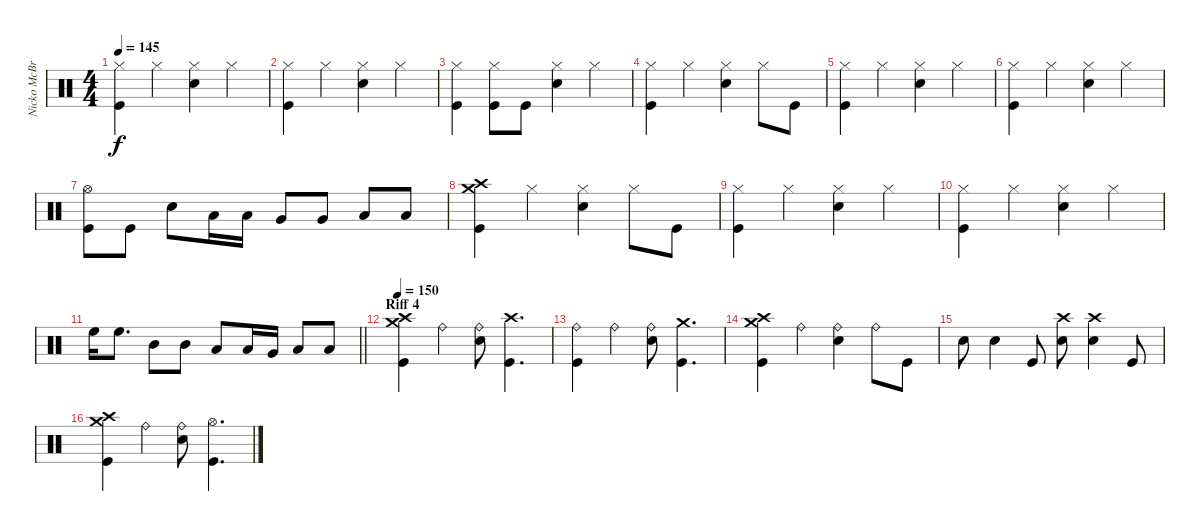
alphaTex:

\track ("Nicko McBrain" "Nicko McBr") {instrument percussion}
\staff {score}
\articulation defaults
\ts (4 4)
\tempo 145
\clef neutral
\ks c
("Hi-Hat (closed)" "Kick (hit)").4{dy f} "Hi-Hat (closed)".4 ("Hi-Hat (closed)" "Snare (hit) 2").4 "Hi-Hat (closed)".4 |
("Hi-Hat (closed)" "Kick (hit)").4 "Hi-Hat (closed)".4 ("Hi-Hat (closed)" "Snare (hit) 2").4 "Hi-Hat (closed)".4 |
("Hi-Hat (closed)" "Kick (hit)").4 ("Hi-Hat (closed)" "Kick (hit)").8 "Kick (hit)".8 ("Hi-Hat (closed)" "Snare (hit) 2").4 "Hi-Hat (closed)".4 |
("Hi-Hat (closed)" "Kick (hit)").4 "Hi-Hat (closed)".4 ("Hi-Hat (closed)" "Snare (hit) 2").4 "Hi-Hat (closed)".8 "Kick (hit)".8 |
("Hi-Hat (closed)" "Kick (hit)").4 "Hi-Hat (closed)".4 ("Hi-Hat (closed)" "Snare (hit) 2").4 "Hi-Hat (closed)".4 |
("Hi-Hat (closed)" "Kick (hit)").4 "Hi-Hat (closed)".4 ("Hi-Hat (closed)" "Snare (hit) 2").4 "Hi-Hat (closed)".4 |
("Hi-Hat (open)" "Kick (hit)").8 "Kick (hit)".8 "Snare (hit) 2".8 "Low Tom (hit)".16 "Low Tom (hit)".16 "Very Low Tom (hit)".8 "Very Low Tom (hit)".8 "Low Floor Tom (hit)".8 "Low Floor Tom (hit)".8 |
("Crash medium (hit)" "Crash high (hit)" "Kick (hit)").4 "Hi-Hat (closed)".4 ("Hi-Hat (closed)" "Snare (hit) 2").4 "Hi-Hat (closed)".8 "Kick (hit)".8 |
("Hi-Hat (closed)" "Kick (hit)").4 "Hi-Hat (closed)".4 ("Hi-Hat (closed)" "Snare (hit) 2").4 "Hi-Hat (closed)".4 |
("Hi-Hat (closed)" "Kick (hit)").4 "Hi-Hat (closed)".4 ("Hi-Hat (closed)" "Snare (hit) 2").4 "Hi-Hat (closed)".4 |
\barLineRight lightlight "High Floor Tom (hit)".16 "High Floor Tom (hit)".8{d} "Mid Tom (hit)".8 "Mid Tom (hit)".8 "Low Tom (hit)".8 "Low Tom (hit)".16 "Very Low Tom (hit)".16 "Low Tom (hit)".8 "Low Floor Tom (hit)".8
|
\section ("" "Riff 4")
\tempo 150
("Crash medium (hit)" "Crash high (hit)" "Kick (hit)").4 "Ride (bell)".4 ("Ride (bell)" "Snare (hit) 2").8 ("Crash high (hit)" "Kick (hit)").4{d} |
("Ride (bell)" "Kick (hit)").4 "Ride (bell)".4 ("Ride (bell)" "Snare (hit) 2").8 ("Crash medium (hit)" "Kick (hit)").4{d} |
("Crash medium (hit)" "Crash high (hit)" "Kick (hit)").4 "Ride (bell)".4 ("Ride (bell)" "Snare (hit) 2").4 "Ride (bell)".8 "Kick (hit)".8 |
"Snare (hit) 2".8 "Snare (hit) 2".4 "Kick (hit)".8 ("Crash high (hit)" "Snare (hit) 2").8 ("Crash high (hit)" "Snare (hit) 2").4 "Kick (hit)".8 |
("Crash medium (hit)" "Crash high (hit)" "Kick (hit)").4 "Ride (bell)".4 ("Ride (bell)" "Snare (hit) 2").8 ("Hi-Hat (open)" "Kick (hit)").4{d}
